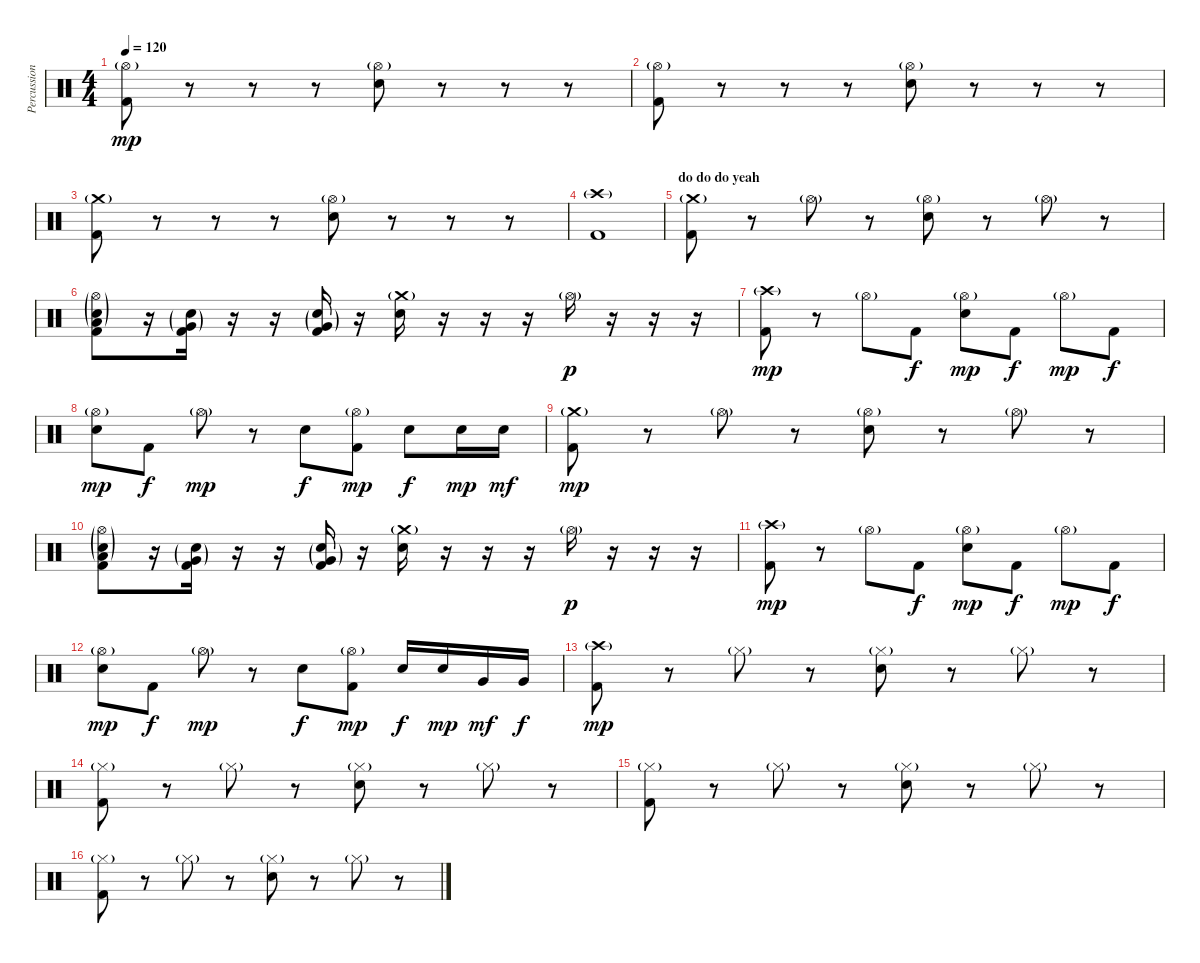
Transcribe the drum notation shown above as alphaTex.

\track ("Percussion" "Percussion") {instrument percussion}
\staff {score}
\articulation defaults
\ts (4 4)
\tempo 120
\clef neutral
\ks c
("Hi-Hat (open)"{g} "Kick (hit) 2").8{dy mp} r.8 r.8 r.8 ("Hi-Hat (open)"{g} "Electric Snare (hit)").8 r.8 r.8 r.8 |
("Hi-Hat (open)"{g} "Kick (hit) 2").8 r.8 r.8 r.8 ("Hi-Hat (open)"{g} "Electric Snare (hit)").8 r.8 r.8 r.8 |
("Crash medium (hit)"{g} "Kick (hit) 2").8 r.8 r.8 r.8 ("Hi-Hat (open)"{g} "Electric Snare (hit)").8 r.8 r.8 r.8 |
("Crash high (hit)"{g} "Kick (hit) 2").1 |
\section ("" "do do do yeah")
("Crash medium (hit)"{g} "Kick (hit) 2").8 r.8 "Hi-Hat (open)"{g}.8 r.8 ("Hi-Hat (open)"{g} "Electric Snare (hit)").8 r.8 "Hi-Hat (open)"{g}.8 r.8 |
("Hi-Hat (open)"{g} "Low Tom (hit)"{g} "Electric Snare (hit)"{g} "Kick (hit) 2").8 r.16 ("Very Low Tom (hit)"{g} "Electric Snare (hit)"{g} "Kick (hit) 2").16 r.16 r.16 ("Very Low Tom (hit)"{g} "Electric Snare (hit)"{g} "Kick (hit) 2").16 r.16 ("Crash medium (hit)"{g} "Electric Snare (hit)").16 r.16 r.16 r.16 "Hi-Hat (open)"{g}.16{dy p} r.16 r.16 r.16 |
("Crash high (hit)"{g} "Kick (hit) 2").8{dy mp} r.8 "Hi-Hat (open)"{g}.8 "Kick (hit) 2".8{dy f} ("Hi-Hat (open)"{g} "Electric Snare (hit)").8{dy mp} "Kick (hit) 2".8{dy f} "Hi-Hat (open)"{g}.8{dy mp} "Kick (hit) 2".8{dy f} |
("Hi-Hat (open)"{g} "Electric Snare (hit)").8{dy mp} "Kick (hit) 2".8{dy f} "Hi-Hat (open)"{g}.8{dy mp} r.8 "Electric Snare (hit)".8{dy f} ("Hi-Hat (open)"{g} "Kick (hit) 2").8{dy mp} "Electric Snare (hit)".8{dy f} "Electric Snare (hit)".16{dy mp} "Electric Snare (hit)".16{dy mf} |
("Crash medium (hit)"{g} "Kick (hit) 2").8{dy mp} r.8 "Hi-Hat (open)"{g}.8 r.8 ("Hi-Hat (open)"{g} "Electric Snare (hit)").8 r.8 "Hi-Hat (open)"{g}.8 r.8 |
("Hi-Hat (open)"{g} "Low Tom (hit)"{g} "Electric Snare (hit)"{g} "Kick (hit) 2").8 r.16 ("Very Low Tom (hit)"{g} "Electric Snare (hit)"{g} "Kick (hit) 2").16 r.16 r.16 ("Very Low Tom (hit)"{g} "Electric Snare (hit)"{g} "Kick (hit) 2").16 r.16 ("Crash medium (hit)"{g} "Electric Snare (hit)").16 r.16 r.16 r.16 "Hi-Hat (open)"{g}.16{dy p} r.16 r.16 r.16 |
("Crash high (hit)"{g} "Kick (hit) 2").8{dy mp} r.8 "Hi-Hat (open)"{g}.8 "Kick (hit) 2".8{dy f} ("Hi-Hat (open)"{g} "Electric Snare (hit)").8{dy mp} "Kick (hit) 2".8{dy f} "Hi-Hat (open)"{g}.8{dy mp} "Kick (hit) 2".8{dy f} |
("Hi-Hat (open)"{g} "Electric Snare (hit)").8{dy mp} "Kick (hit) 2".8{dy f} "Hi-Hat (open)"{g}.8{dy mp} r.8 "Electric Snare (hit)".8{dy f} ("Hi-Hat (open)"{g} "Kick (hit) 2").8{dy mp} "Electric Snare (hit)".16{dy f} "Electric Snare (hit)".16{dy mp} "Very Low Tom (hit)".16{dy mf} "Very Low Tom (hit)".16{dy f} |
\section ("" "")
("Crash high (hit)"{g} "Kick (hit) 2").8{dy mp} r.8 "Hi-Hat (closed)"{g}.8 r.8 ("Hi-Hat (closed)"{g} "Electric Snare (hit)").8 r.8 "Hi-Hat (closed)"{g}.8 r.8 |
("Hi-Hat (closed)"{g} "Kick (hit) 2").8 r.8 "Hi-Hat (closed)"{g}.8 r.8 ("Hi-Hat (closed)"{g} "Electric Snare (hit)").8 r.8 "Hi-Hat (closed)"{g}.8 r.8 |
("Hi-Hat (closed)"{g} "Kick (hit) 2").8 r.8 "Hi-Hat (closed)"{g}.8 r.8 ("Hi-Hat (closed)"{g} "Electric Snare (hit)").8 r.8 "Hi-Hat (closed)"{g}.8 r.8 |
("Hi-Hat (closed)"{g} "Kick (hit) 2").8 r.8 "Hi-Hat (closed)"{g}.8 r.8 ("Hi-Hat (closed)"{g} "Electric Snare (hit)").8 r.8 "Hi-Hat (closed)"{g}.8 r.8
